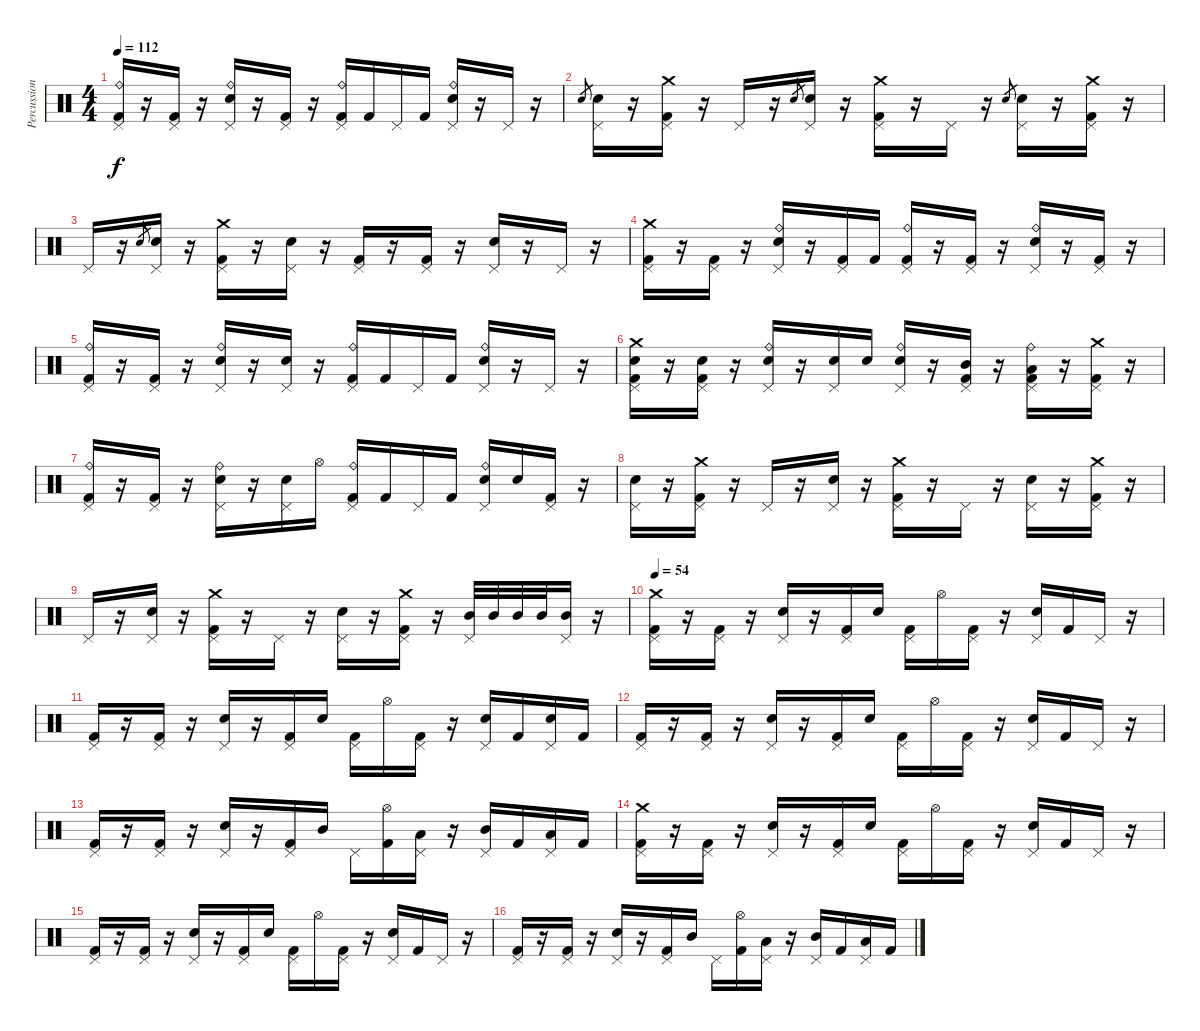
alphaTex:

\track ("Percussion" "Percussion") {instrument percussion}
\staff {score}
\articulation defaults
\ts (4 4)
\tempo 112
\clef neutral
\ks c
("Pedal Hi-Hat (hit)" "Ride (bell)" "Kick (hit) 2").16{dy f} r.16 ("Pedal Hi-Hat (hit)" "Kick (hit) 2").16 r.16 ("Pedal Hi-Hat (hit)" "Ride (bell)" "Snare (hit) 2").16 r.16 ("Pedal Hi-Hat (hit)" "Kick (hit) 2").16 r.16 ("Pedal Hi-Hat (hit)" "Ride (bell)" "Kick (hit) 2").16 "Kick (hit) 2".16 "Pedal Hi-Hat (hit)".16 "Kick (hit) 2".16 ("Pedal Hi-Hat (hit)" "Ride (bell)" "Snare (hit) 2").16 r.16 "Pedal Hi-Hat (hit)".16 r.16 |
"Snare (hit) 2".8{gr} ("Pedal Hi-Hat (hit)" "Snare (hit) 2").16 r.16 ("Crash medium (hit)" "Pedal Hi-Hat (hit)" "Kick (hit) 2").16 r.16 "Pedal Hi-Hat (hit)".16 r.16 "Snare (hit) 2".8{gr} ("Pedal Hi-Hat (hit)" "Snare (hit) 2").16 r.16 ("Crash medium (hit)" "Pedal Hi-Hat (hit)" "Kick (hit) 2").16 r.16 "Pedal Hi-Hat (hit)".16 r.16 "Snare (hit) 2".8{gr} ("Pedal Hi-Hat (hit)" "Snare (hit) 2").16 r.16 ("Crash medium (hit)" "Pedal Hi-Hat (hit)" "Kick (hit) 2").16 r.16 |
"Pedal Hi-Hat (hit)".16 r.16 "Snare (hit) 2".8{gr} ("Pedal Hi-Hat (hit)" "Snare (hit) 2").16 r.16 ("Crash medium (hit)" "Pedal Hi-Hat (hit)" "Kick (hit) 2").16 r.16 ("Pedal Hi-Hat (hit)" "Snare (hit) 2").16 r.16 ("Pedal Hi-Hat (hit)" "Kick (hit) 2").16 r.16 ("Pedal Hi-Hat (hit)" "Kick (hit) 2").16 r.16 ("Pedal Hi-Hat (hit)" "Snare (hit) 2").16 r.16 "Pedal Hi-Hat (hit)".16 r.16 |
("Crash medium (hit)" "Pedal Hi-Hat (hit)" "Kick (hit) 2").16 r.16 ("Pedal Hi-Hat (hit)" "Kick (hit) 2").16 r.16 ("Pedal Hi-Hat (hit)" "Ride (bell)" "Snare (hit) 2").16 r.16 ("Pedal Hi-Hat (hit)" "Kick (hit) 2").16 "Kick (hit) 2".16 ("Pedal Hi-Hat (hit)" "Ride (bell)" "Kick (hit) 2").16 r.16 ("Pedal Hi-Hat (hit)" "Kick (hit) 2").16 r.16 ("Pedal Hi-Hat (hit)" "Ride (bell)" "Snare (hit) 2").16 r.16 ("Pedal Hi-Hat (hit)" "Kick (hit) 2").16 r.16 |
("Pedal Hi-Hat (hit)" "Ride (bell)" "Kick (hit) 2").16 r.16 ("Pedal Hi-Hat (hit)" "Kick (hit) 2").16 r.16 ("Pedal Hi-Hat (hit)" "Ride (bell)" "Snare (hit) 2").16 r.16 ("Pedal Hi-Hat (hit)" "Snare (hit) 2").16 r.16 ("Pedal Hi-Hat (hit)" "Ride (bell)" "Kick (hit) 2").16 "Kick (hit) 2".16 "Pedal Hi-Hat (hit)".16 "Kick (hit) 2".16 ("Pedal Hi-Hat (hit)" "Ride (bell)" "Snare (hit) 2").16 r.16 "Pedal Hi-Hat (hit)".16 r.16 |
("Crash medium (hit)" "Pedal Hi-Hat (hit)" "Snare (hit) 2" "Kick (hit) 2").16 r.16 ("Pedal Hi-Hat (hit)" "Snare (hit) 2" "Kick (hit) 2").16 r.16 ("Ride (bell)" "Pedal Hi-Hat (hit)" "Snare (hit) 2").16 r.16 ("Pedal Hi-Hat (hit)" "Snare (hit) 2").16 "Snare (hit) 2".16 ("Ride (bell)" "Pedal Hi-Hat (hit)" "Snare (hit) 2").16 r.16 ("Pedal Hi-Hat (hit)" "Mid Tom (hit)" "Kick (hit) 2").16 r.16 ("Ride (bell)" "Pedal Hi-Hat (hit)" "Low Tom (hit)" "Kick (hit) 2").16 r.16 ("Crash medium (hit)" "Pedal Hi-Hat (hit)" "Kick (hit) 2").16 r.16 |
("Pedal Hi-Hat (hit)" "Ride (bell)" "Kick (hit) 2").16 r.16 ("Pedal Hi-Hat (hit)" "Kick (hit) 2").16 r.16 ("Pedal Hi-Hat (hit)" "Ride (bell)" "Snare (hit) 2").16 r.16 ("Pedal Hi-Hat (hit)" "Snare (hit) 2").16 "Hi-Hat (open)".16 ("Pedal Hi-Hat (hit)" "Ride (bell)" "Kick (hit) 2").16 "Kick (hit) 2".16 "Pedal Hi-Hat (hit)".16 "Kick (hit) 2".16 ("Pedal Hi-Hat (hit)" "Ride (bell)" "Snare (hit) 2").16 "Snare (hit) 2".16 ("Pedal Hi-Hat (hit)" "Kick (hit) 2").16 r.16 |
("Pedal Hi-Hat (hit)" "Snare (hit) 2").16 r.16 ("Crash medium (hit)" "Pedal Hi-Hat (hit)" "Kick (hit) 2").16 r.16 "Pedal Hi-Hat (hit)".16 r.16 ("Pedal Hi-Hat (hit)" "Snare (hit) 2").16 r.16 ("Crash medium (hit)" "Pedal Hi-Hat (hit)" "Kick (hit) 2").16 r.16 "Pedal Hi-Hat (hit)".16 r.16 ("Pedal Hi-Hat (hit)" "Snare (hit) 2").16 r.16 ("Crash medium (hit)" "Pedal Hi-Hat (hit)" "Kick (hit) 2").16 r.16 |
"Pedal Hi-Hat (hit)".16 r.16 ("Pedal Hi-Hat (hit)" "Snare (hit) 2").16 r.16 ("Crash medium (hit)" "Pedal Hi-Hat (hit)" "Kick (hit) 2").16 r.16 "Pedal Hi-Hat (hit)".16 r.16 ("Pedal Hi-Hat (hit)" "Snare (hit) 2").16 r.16 ("Crash medium (hit)" "Pedal Hi-Hat (hit)" "Kick (hit) 2").16 r.16 ("Pedal Hi-Hat (hit)" "Mid Tom (hit)").32 "Mid Tom (hit)".32 "Mid Tom (hit)".32 "Mid Tom (hit)".32 ("Pedal Hi-Hat (hit)" "Mid Tom (hit)").16 r.16 |
\tempo 54
("Crash medium (hit)" "Pedal Hi-Hat (hit)" "Kick (hit) 2").16{volume 9} r.16 ("Pedal Hi-Hat (hit)" "Kick (hit) 2").16 r.16 ("Pedal Hi-Hat (hit)" "Snare (hit) 2").16 r.16 ("Pedal Hi-Hat (hit)" "Kick (hit) 2").16 "Snare (hit) 2".16 ("Pedal Hi-Hat (hit)" "Kick (hit) 2").16 "Hi-Hat (open)".16 ("Pedal Hi-Hat (hit)" "Kick (hit) 2").16 r.16 ("Pedal Hi-Hat (hit)" "Snare (hit) 2").16 "Kick (hit) 2".16 "Pedal Hi-Hat (hit)".16 r.16 |
("Pedal Hi-Hat (hit)" "Kick (hit) 2").16 r.16 ("Pedal Hi-Hat (hit)" "Kick (hit) 2").16 r.16 ("Pedal Hi-Hat (hit)" "Snare (hit) 2").16 r.16 ("Pedal Hi-Hat (hit)" "Kick (hit) 2").16 "Snare (hit) 2".16 ("Pedal Hi-Hat (hit)" "Kick (hit) 2").16 "Hi-Hat (open)".16 ("Pedal Hi-Hat (hit)" "Kick (hit) 2").16 r.16 ("Pedal Hi-Hat (hit)" "Snare (hit) 2").16 "Kick (hit) 2".16 ("Pedal Hi-Hat (hit)" "Snare (hit) 2").16 "Kick (hit) 2".16 |
("Pedal Hi-Hat (hit)" "Kick (hit) 2").16 r.16 ("Pedal Hi-Hat (hit)" "Kick (hit) 2").16 r.16 ("Pedal Hi-Hat (hit)" "Snare (hit) 2").16 r.16 ("Pedal Hi-Hat (hit)" "Kick (hit) 2").16 "Snare (hit) 2".16 ("Pedal Hi-Hat (hit)" "Kick (hit) 2").16 "Hi-Hat (open)".16 ("Pedal Hi-Hat (hit)" "Kick (hit) 2").16 r.16 ("Pedal Hi-Hat (hit)" "Snare (hit) 2").16 "Kick (hit) 2".16 "Pedal Hi-Hat (hit)".16 r.16 |
("Pedal Hi-Hat (hit)" "Kick (hit) 2").16 r.16 ("Pedal Hi-Hat (hit)" "Kick (hit) 2").16 r.16 ("Pedal Hi-Hat (hit)" "Snare (hit) 2").16 r.16 ("Pedal Hi-Hat (hit)" "Kick (hit) 2").16 "Mid Tom (hit)".16 "Pedal Hi-Hat (hit)".16 ("Hi-Hat (open)" "Kick (hit) 2").16 ("Pedal Hi-Hat (hit)" "Low Tom (hit)").16 r.16 ("Pedal Hi-Hat (hit)" "Mid Tom (hit)").16 "Kick (hit) 2".16 ("Pedal Hi-Hat (hit)" "Low Tom (hit)").16 "Kick (hit) 2".16 |
("Crash medium (hit)" "Pedal Hi-Hat (hit)" "Kick (hit) 2").16{volume 9} r.16 ("Pedal Hi-Hat (hit)" "Kick (hit) 2").16 r.16 ("Pedal Hi-Hat (hit)" "Snare (hit) 2").16 r.16 ("Pedal Hi-Hat (hit)" "Kick (hit) 2").16 "Snare (hit) 2".16 ("Pedal Hi-Hat (hit)" "Kick (hit) 2").16 "Hi-Hat (open)".16 ("Pedal Hi-Hat (hit)" "Kick (hit) 2").16 r.16 ("Pedal Hi-Hat (hit)" "Snare (hit) 2").16 "Kick (hit) 2".16 "Pedal Hi-Hat (hit)".16 r.16 |
("Pedal Hi-Hat (hit)" "Kick (hit) 2").16 r.16 ("Pedal Hi-Hat (hit)" "Kick (hit) 2").16 r.16 ("Pedal Hi-Hat (hit)" "Snare (hit) 2").16 r.16 ("Pedal Hi-Hat (hit)" "Kick (hit) 2").16 "Snare (hit) 2".16 ("Pedal Hi-Hat (hit)" "Kick (hit) 2").16 "Hi-Hat (open)".16 ("Pedal Hi-Hat (hit)" "Kick (hit) 2").16 r.16 ("Pedal Hi-Hat (hit)" "Snare (hit) 2").16 "Kick (hit) 2".16 "Pedal Hi-Hat (hit)".16 r.16 |
("Pedal Hi-Hat (hit)" "Kick (hit) 2").16 r.16 ("Pedal Hi-Hat (hit)" "Kick (hit) 2").16 r.16 ("Pedal Hi-Hat (hit)" "Snare (hit) 2").16 r.16 ("Pedal Hi-Hat (hit)" "Kick (hit) 2").16 "Mid Tom (hit)".16 "Pedal Hi-Hat (hit)".16 ("Hi-Hat (open)" "Kick (hit) 2").16 ("Pedal Hi-Hat (hit)" "Low Tom (hit)").16 r.16 ("Pedal Hi-Hat (hit)" "Mid Tom (hit)").16 "Kick (hit) 2".16 ("Pedal Hi-Hat (hit)" "Low Tom (hit)").16 "Kick (hit) 2".16
